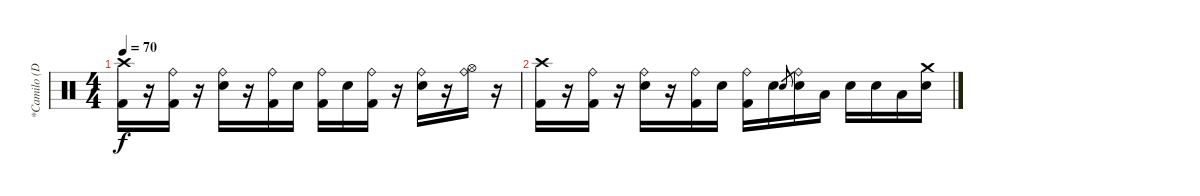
\track ("*Camilo (Drums)" "*Camilo (D") {instrument percussion}
\staff {score}
\articulation defaults
\ts (4 4)
\tempo 70
\clef neutral
\ks c
("Crash high (hit)" "Kick (hit) 2").16{dy f} r.16 ("Ride (bell)" "Kick (hit) 2").16 r.16 ("Ride (bell)" "Electric Snare (hit)").16 r.16 ("Ride (bell)" "Kick (hit) 2").16 "Electric Snare (hit)".16 ("Ride (bell)" "Kick (hit) 2").16 "Electric Snare (hit)".16 ("Ride (bell)" "Kick (hit) 2").16 r.16 ("Ride (bell)" "Electric Snare (hit)").16 r.16 ("Ride (bell)" "Hi-Hat (open)").16 r.16 |
("Crash high (hit)" "Kick (hit) 2").16 r.16 ("Ride (bell)" "Kick (hit) 2").16 r.16 ("Ride (bell)" "Electric Snare (hit)").16 r.16 ("Ride (bell)" "Kick (hit) 2").16 "Electric Snare (hit)".16 ("Ride (bell)" "Kick (hit) 2").16 "Electric Snare (hit)".16 "Electric Snare (hit)".8{gr} ("Ride (bell)" "Electric Snare (hit)").16 "Low Tom (hit)".16 "Electric Snare (hit)".16 "Electric Snare (hit)".16 "Low Tom (hit)".16 ("Crash medium (hit)" "Electric Snare (hit)").16
